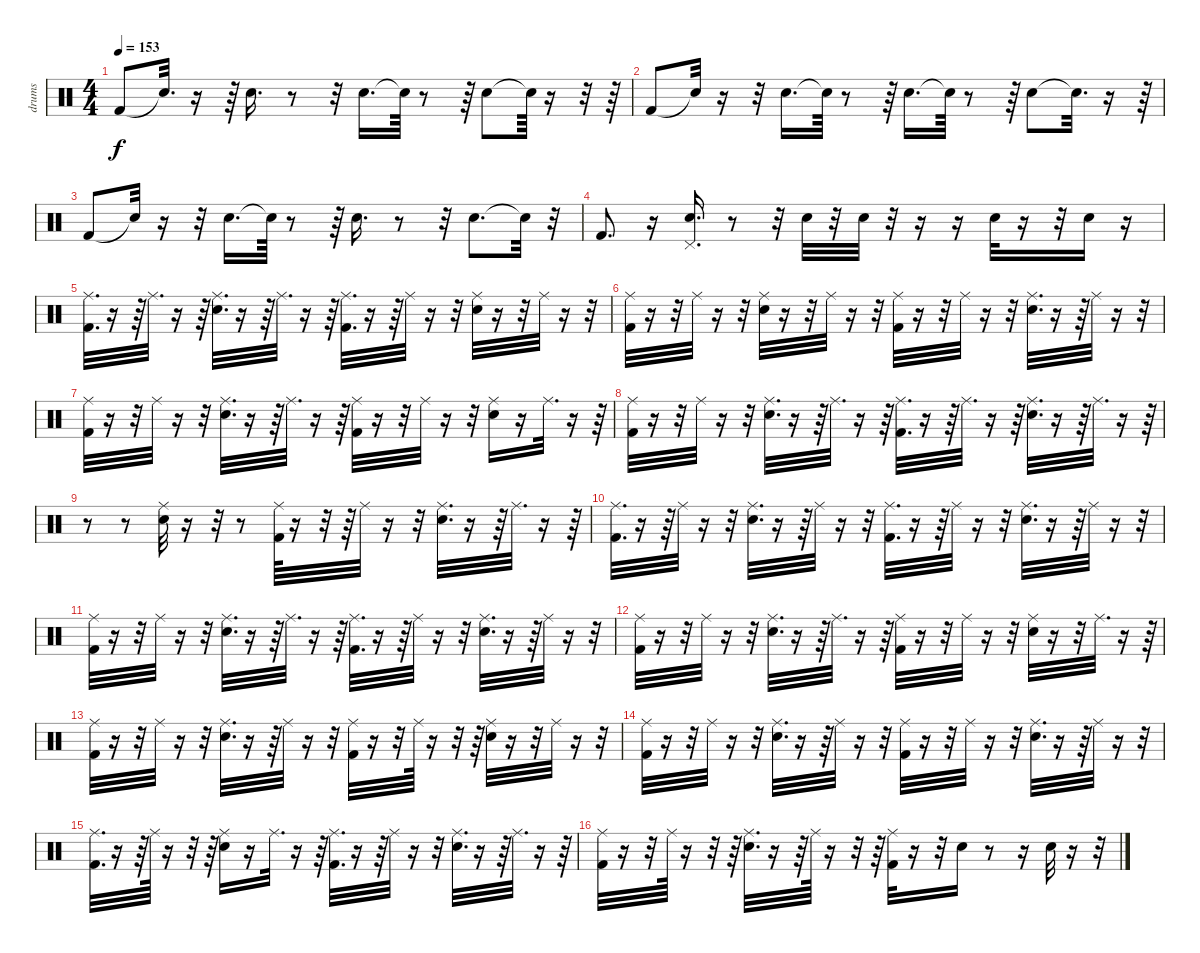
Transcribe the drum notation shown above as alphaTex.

\track ("drums" "drums") {instrument percussion}
\staff {score}
\articulation defaults
\ts (4 4)
\tempo 153
\clef neutral
\ks c "Kick (hit) 2".8{dy f} "Snare (hit)"{t}.32{d}
r.16 r.64 "Snare (hit) 2".16{d} r.8 r.32 "Snare (hit) 2".16{d} "Snare (hit)"{t}.64 r.8 r.64 "Snare (hit) 2".8 "Snare (hit)"{t}.64 r.16 r.32 r.64 |
"Kick (hit) 2".8 "Snare (hit)"{t}.32 r.16 r.32 "Snare (hit) 2".16{d} "Snare (hit)"{t}.64 r.8 r.64 "Snare (hit) 2".16{d} "Snare (hit)"{t}.64 r.8 r.64 "Snare (hit) 2".8 "Snare (hit)"{t}.32{d} r.16 r.64 |
"Kick (hit) 2".8 "Snare (hit)"{t}.32 r.16 r.32 "Snare (hit) 2".16{d} "Snare (hit)"{t}.64 r.8 r.64 "Snare (hit) 2".16{d} r.8 r.32 "Snare (hit) 2".8{d} "Snare (hit)"{t}.32 r.32 |
"Kick (hit) 2".8{d} r.16 ("Pedal Hi-Hat (hit)" "Snare (hit) 2").16{d} r.8 r.32 "Snare (hit) 2".32 r.32 "Snare (hit) 2".32 r.32 r.16 r.16 "Snare (hit) 2".32 r.16 r.32 "Snare (hit) 2".16 r.16 |
("Ride (middle)" "Kick (hit) 2").32{d} r.16 r.64 "Ride (middle)".32{d} r.16 r.64 ("Ride (middle)" "Snare (hit) 2").32{d} r.16 r.64 "Ride (middle)".32{d} r.16 r.64 ("Ride (middle)" "Kick (hit) 2").32{d} r.16 r.64 "Ride (middle)".32 r.16 r.32 ("Ride (middle)" "Snare (hit) 2").32 r.16 r.32 "Ride (middle)".32 r.16 r.32 |
("Ride (middle)" "Kick (hit) 2").32 r.16 r.32 "Ride (middle)".32 r.16 r.32 ("Ride (middle)" "Snare (hit) 2").32 r.16 r.32 "Ride (middle)".32 r.16 r.32 ("Ride (middle)" "Kick (hit) 2").32 r.16 r.32 "Ride (middle)".32 r.16 r.32 ("Ride (middle)" "Snare (hit) 2").32{d} r.16 r.64 "Ride (middle)".32 r.16 r.32 |
("Ride (middle)" "Kick (hit) 2").32 r.16 r.32 "Ride (middle)".32 r.16 r.32 ("Ride (middle)" "Snare (hit) 2").32{d} r.16 r.64 "Ride (middle)".32{d} r.16 r.64 ("Ride (middle)" "Kick (hit) 2").32 r.16 r.32 "Ride (middle)".32 r.16 r.32 ("Ride (middle)" "Snare (hit) 2").16 r.16 "Ride (middle)".32{d} r.16 r.64 |
("Ride (middle)" "Kick (hit) 2").32 r.16 r.32 "Ride (middle)".32 r.16 r.32 ("Ride (middle)" "Snare (hit) 2").32{d} r.16 r.64 "Ride (middle)".32{d} r.16 r.64 ("Ride (middle)" "Kick (hit) 2").32{d} r.16 r.64 "Ride (middle)".32{d} r.16 r.64 ("Ride (middle)" "Snare (hit) 2").32{d} r.16 r.64 "Ride (middle)".32{d} r.16 r.64 |
r.8 r.8 ("Ride (middle)" "Snare (hit) 2").32 r.16 r.32 r.8 ("Ride (middle)" "Kick (hit) 2").64 r.16 r.32 r.64 "Ride (middle)".32 r.16 r.32 ("Ride (middle)" "Snare (hit) 2").32{d} r.16 r.64 "Ride (middle)".32{d} r.16 r.64 |
("Ride (middle)" "Kick (hit) 2").32{d} r.16 r.64 "Ride (middle)".32 r.16 r.32 ("Ride (middle)" "Snare (hit) 2").32{d} r.16 r.64 "Ride (middle)".32 r.16 r.32 ("Ride (middle)" "Kick (hit) 2").32{d} r.16 r.64 "Ride (middle)".32 r.16 r.32 ("Ride (middle)" "Snare (hit) 2").32{d} r.16 r.64 "Ride (middle)".32 r.16 r.32 |
("Ride (middle)" "Kick (hit) 2").32 r.16 r.32 "Ride (middle)".32 r.16 r.32 ("Ride (middle)" "Snare (hit) 2").32{d} r.16 r.64 "Ride (middle)".32{d} r.16 r.64 ("Ride (middle)" "Kick (hit) 2").32{d} r.16 r.64 "Ride (middle)".32 r.16 r.32 ("Ride (middle)" "Snare (hit) 2").32{d} r.16 r.64 "Ride (middle)".32 r.16 r.32 |
("Ride (middle)" "Kick (hit) 2").32 r.16 r.32 "Ride (middle)".32 r.16 r.32 ("Ride (middle)" "Snare (hit) 2").32{d} r.16 r.64 "Ride (middle)".32{d} r.16 r.64 ("Ride (middle)" "Kick (hit) 2").32 r.16 r.32 "Ride (middle)".32 r.16 r.32 ("Ride (middle)" "Snare (hit) 2").32 r.16 r.32 "Ride (middle)".32{d} r.16 r.64 |
("Ride (middle)" "Kick (hit) 2").32 r.16 r.32 "Ride (middle)".32 r.16 r.32 ("Ride (middle)" "Snare (hit) 2").32{d} r.16 r.64 "Ride (middle)".32 r.16 r.32 ("Ride (middle)" "Kick (hit) 2").32 r.16 r.32 "Ride (middle)".64 r.16 r.32 r.64 ("Ride (middle)" "Snare (hit) 2").32 r.16 r.32 "Ride (middle)".32 r.16 r.32 |
("Ride (middle)" "Kick (hit) 2").32 r.16 r.32 "Ride (middle)".32 r.16 r.32 ("Ride (middle)" "Snare (hit) 2").32{d} r.16 r.64 "Ride (middle)".32 r.16 r.32 ("Ride (middle)" "Kick (hit) 2").32 r.16 r.32 "Ride (middle)".32 r.16 r.32 ("Ride (middle)" "Snare (hit) 2").32{d} r.16 r.64 "Ride (middle)".32 r.16 r.32 |
("Ride (middle)" "Kick (hit) 2").32{d} r.16 r.64 "Ride (middle)".64 r.16 r.32 r.64 ("Ride (middle)" "Snare (hit) 2").16 r.16 "Ride (middle)".32{d} r.16 r.64 ("Ride (middle)" "Kick (hit) 2").32{d} r.16 r.64 "Ride (middle)".32 r.16 r.32 ("Ride (middle)" "Snare (hit) 2").32{d} r.16 r.64 "Ride (middle)".32{d} r.16 r.64 |
("Ride (middle)" "Kick (hit) 2").32 r.16 r.32 "Ride (middle)".64 r.16 r.32 r.64 ("Ride (middle)" "Snare (hit) 2").32{d} r.16 r.64 "Ride (middle)".64 r.16 r.32 r.64 ("Ride (middle)" "Kick (hit) 2").32 r.16 r.32 "Snare (hit) 2".16 r.8 r.16 "Snare (hit) 2".32 r.16 r.32
